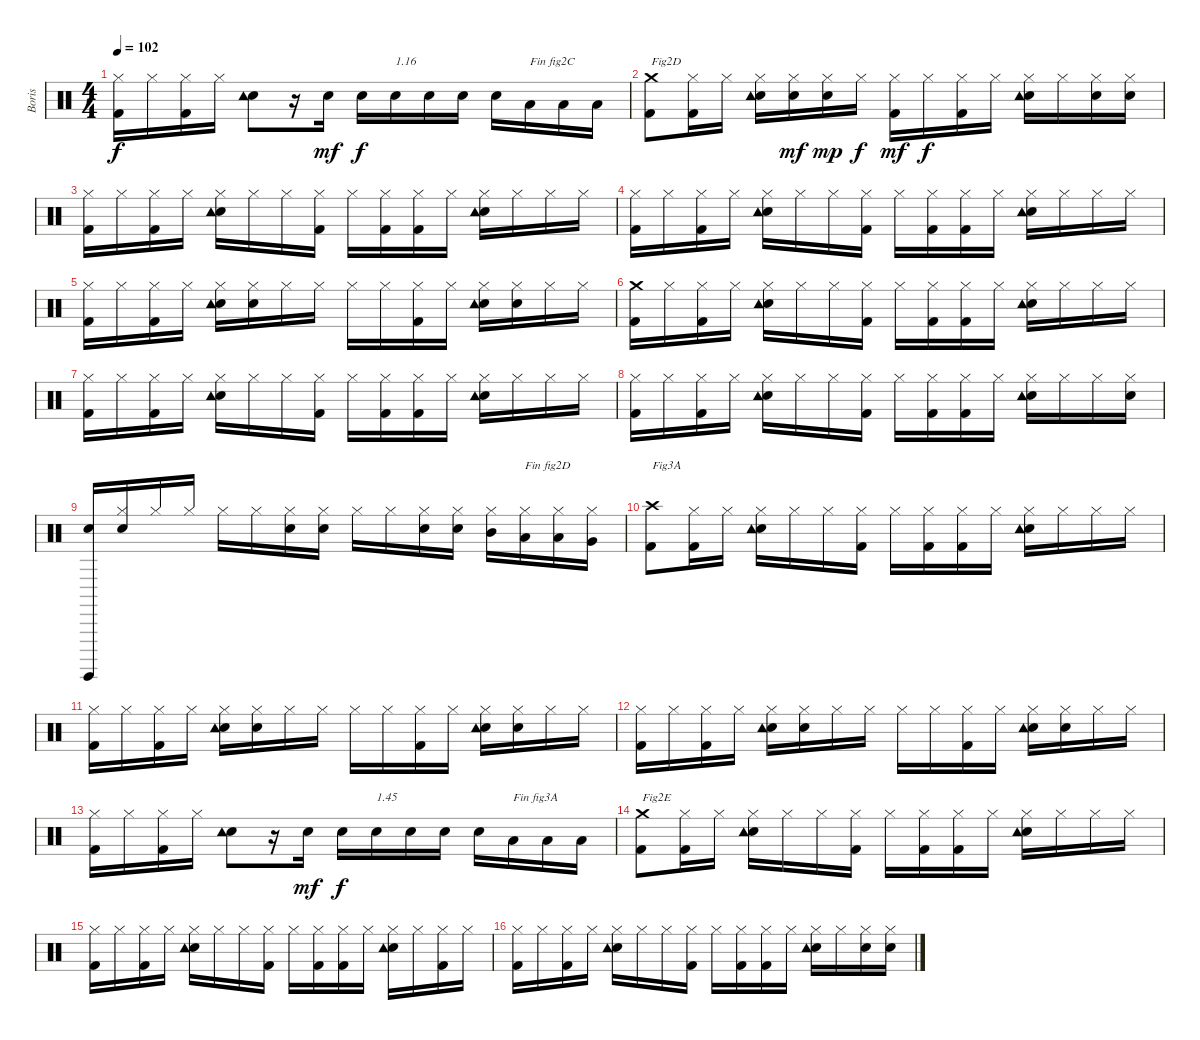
\track ("Boris" "Boris") {instrument percussion}
\staff {score}
\articulation defaults
\ts (4 4)
\tempo 102
\clef neutral
\ks c
("Kick (hit) 2" "Hi-Hat (closed)").16{dy f} "Hi-Hat (closed)".16 ("Kick (hit) 2" "Hi-Hat (closed)").16 "Hi-Hat (closed)".16 ("Electric Snare (hit)" "Tambourine (hit)").8 r.16 "Electric Snare (hit)".16{dy mf} "Electric Snare (hit)".16{dy f} "Electric Snare (hit)".16{txt "1.16"} "Electric Snare (hit)".16 "Electric Snare (hit)".16 "Electric Snare (hit)".16 "Low Tom (hit)".16{txt "Fin fig2C"} "Low Tom (hit)".16 "Low Tom (hit)".16 |
("Kick (hit) 2" "Crash medium (hit)").8{txt "Fig2D"} ("Kick (hit) 2" "Hi-Hat (closed)").16 "Hi-Hat (closed)".16 ("Electric Snare (hit)" "Tambourine (hit)" "Hi-Hat (closed)").16 ("Electric Snare (hit)" "Hi-Hat (closed)").16{dy mf} ("Electric Snare (hit)" "Hi-Hat (closed)").16{dy mp} "Hi-Hat (closed)".16{dy f} ("Kick (hit) 2" "Hi-Hat (closed)").16{dy mf} "Hi-Hat (closed)".16{dy f} ("Kick (hit) 2" "Hi-Hat (closed)").16 "Hi-Hat (closed)".16 ("Electric Snare (hit)" "Tambourine (hit)" "Hi-Hat (closed)").16 "Hi-Hat (closed)".16 ("Electric Snare (hit)" "Hi-Hat (closed)").16 ("Electric Snare (hit)" "Hi-Hat (closed)").16 |
("Kick (hit) 2" "Hi-Hat (closed)").16 "Hi-Hat (closed)".16 ("Kick (hit) 2" "Hi-Hat (closed)").16 "Hi-Hat (closed)".16 ("Electric Snare (hit)" "Tambourine (hit)" "Hi-Hat (closed)").16 "Hi-Hat (closed)".16 "Hi-Hat (closed)".16 ("Kick (hit) 2" "Hi-Hat (closed)").16 "Hi-Hat (closed)".16 ("Kick (hit) 2" "Hi-Hat (closed)").16 ("Kick (hit) 2" "Hi-Hat (closed)").16 "Hi-Hat (closed)".16 ("Electric Snare (hit)" "Tambourine (hit)" "Hi-Hat (closed)").16 "Hi-Hat (closed)".16 "Hi-Hat (closed)".16 "Hi-Hat (closed)".16 |
("Kick (hit) 2" "Hi-Hat (closed)").16 "Hi-Hat (closed)".16 ("Kick (hit) 2" "Hi-Hat (closed)").16 "Hi-Hat (closed)".16 ("Electric Snare (hit)" "Tambourine (hit)" "Hi-Hat (closed)").16 "Hi-Hat (closed)".16 "Hi-Hat (closed)".16 ("Kick (hit) 2" "Hi-Hat (closed)").16 "Hi-Hat (closed)".16 ("Kick (hit) 2" "Hi-Hat (closed)").16 ("Kick (hit) 2" "Hi-Hat (closed)").16 "Hi-Hat (closed)".16 ("Electric Snare (hit)" "Tambourine (hit)" "Hi-Hat (closed)").16 "Hi-Hat (closed)".16 "Hi-Hat (closed)".16 "Hi-Hat (closed)".16 |
("Kick (hit) 2" "Hi-Hat (closed)").16 "Hi-Hat (closed)".16 ("Kick (hit) 2" "Hi-Hat (closed)").16 "Hi-Hat (closed)".16 ("Electric Snare (hit)" "Tambourine (hit)" "Hi-Hat (closed)").16 ("Electric Snare (hit)" "Hi-Hat (closed)").16 "Hi-Hat (closed)".16 "Hi-Hat (closed)".16 "Hi-Hat (closed)".16 "Hi-Hat (closed)".16 ("Kick (hit) 2" "Hi-Hat (closed)").16 "Hi-Hat (closed)".16 ("Electric Snare (hit)" "Tambourine (hit)" "Hi-Hat (closed)").16 ("Electric Snare (hit)" "Hi-Hat (closed)").16 "Hi-Hat (closed)".16 "Hi-Hat (closed)".16 |
("Kick (hit) 2" "Crash medium (hit)").16 "Hi-Hat (closed)".16 ("Kick (hit) 2" "Hi-Hat (closed)").16 "Hi-Hat (closed)".16 ("Electric Snare (hit)" "Tambourine (hit)" "Hi-Hat (closed)").16 "Hi-Hat (closed)".16 "Hi-Hat (closed)".16 ("Kick (hit) 2" "Hi-Hat (closed)").16 "Hi-Hat (closed)".16 ("Kick (hit) 2" "Hi-Hat (closed)").16 ("Kick (hit) 2" "Hi-Hat (closed)").16 "Hi-Hat (closed)".16 ("Electric Snare (hit)" "Tambourine (hit)" "Hi-Hat (closed)").16 "Hi-Hat (closed)".16 "Hi-Hat (closed)".16 "Hi-Hat (closed)".16 |
("Kick (hit) 2" "Hi-Hat (closed)").16 "Hi-Hat (closed)".16 ("Kick (hit) 2" "Hi-Hat (closed)").16 "Hi-Hat (closed)".16 ("Electric Snare (hit)" "Tambourine (hit)" "Hi-Hat (closed)").16 "Hi-Hat (closed)".16 "Hi-Hat (closed)".16 ("Kick (hit) 2" "Hi-Hat (closed)").16 "Hi-Hat (closed)".16 ("Kick (hit) 2" "Hi-Hat (closed)").16 ("Kick (hit) 2" "Hi-Hat (closed)").16 "Hi-Hat (closed)".16 ("Electric Snare (hit)" "Tambourine (hit)" "Hi-Hat (closed)").16 "Hi-Hat (closed)".16 "Hi-Hat (closed)".16 "Hi-Hat (closed)".16 |
("Kick (hit) 2" "Hi-Hat (closed)").16 "Hi-Hat (closed)".16 ("Kick (hit) 2" "Hi-Hat (closed)").16 "Hi-Hat (closed)".16 ("Electric Snare (hit)" "Tambourine (hit)" "Hi-Hat (closed)").16 "Hi-Hat (closed)".16 "Hi-Hat (closed)".16 ("Kick (hit) 2" "Hi-Hat (closed)").16 "Hi-Hat (closed)".16 ("Kick (hit) 2" "Hi-Hat (closed)").16 ("Kick (hit) 2" "Hi-Hat (closed)").16 "Hi-Hat (closed)".16 ("Electric Snare (hit)" "Tambourine (hit)" "Hi-Hat (closed)").16 "Hi-Hat (closed)".16 "Hi-Hat (closed)".16 ("Electric Snare (hit)" "Hi-Hat (closed)").16 |
("Electric Snare (hit)" "Surdo (hit)").16 ("Electric Snare (hit)" "Hi-Hat (closed)").16 "Hi-Hat (closed)".16 "Hi-Hat (closed)".16 "Hi-Hat (closed)".16 "Hi-Hat (closed)".16 ("Electric Snare (hit)" "Hi-Hat (closed)").16 ("Electric Snare (hit)" "Hi-Hat (closed)").16 "Hi-Hat (closed)".16 "Hi-Hat (closed)".16 ("Electric Snare (hit)" "Hi-Hat (closed)").16 ("Electric Snare (hit)" "Hi-Hat (closed)").16 ("Mid Tom (hit)" "Hi-Hat (closed)").16 ("Low Tom (hit)" "Hi-Hat (closed)").16{txt "Fin fig2D"} ("Low Tom (hit)" "Hi-Hat (closed)").16 ("Very Low Tom (hit)" "Hi-Hat (closed)").16 |
("Kick (hit) 2" "Crash high (hit)").8{txt "Fig3A"} ("Kick (hit) 2" "Hi-Hat (closed)").16 "Hi-Hat (closed)".16 ("Electric Snare (hit)" "Tambourine (hit)" "Hi-Hat (closed)").16 "Hi-Hat (closed)".16 "Hi-Hat (closed)".16 ("Kick (hit) 2" "Hi-Hat (closed)").16 "Hi-Hat (closed)".16 ("Kick (hit) 2" "Hi-Hat (closed)").16 ("Kick (hit) 2" "Hi-Hat (closed)").16 "Hi-Hat (closed)".16 ("Electric Snare (hit)" "Tambourine (hit)" "Hi-Hat (closed)").16 "Hi-Hat (closed)".16 "Hi-Hat (closed)".16 "Hi-Hat (closed)".16 |
("Kick (hit) 2" "Hi-Hat (closed)").16 "Hi-Hat (closed)".16 ("Kick (hit) 2" "Hi-Hat (closed)").16 "Hi-Hat (closed)".16 ("Electric Snare (hit)" "Tambourine (hit)" "Hi-Hat (closed)").16 ("Electric Snare (hit)" "Hi-Hat (closed)").16 "Hi-Hat (closed)".16 "Hi-Hat (closed)".16 "Hi-Hat (closed)".16 "Hi-Hat (closed)".16 ("Kick (hit) 2" "Hi-Hat (closed)").16 "Hi-Hat (closed)".16 ("Electric Snare (hit)" "Tambourine (hit)" "Hi-Hat (closed)").16 ("Electric Snare (hit)" "Hi-Hat (closed)").16 "Hi-Hat (closed)".16 "Hi-Hat (closed)".16 |
("Kick (hit) 2" "Hi-Hat (closed)").16 "Hi-Hat (closed)".16 ("Kick (hit) 2" "Hi-Hat (closed)").16 "Hi-Hat (closed)".16 ("Electric Snare (hit)" "Tambourine (hit)" "Hi-Hat (closed)").16 ("Electric Snare (hit)" "Hi-Hat (closed)").16 "Hi-Hat (closed)".16 "Hi-Hat (closed)".16 "Hi-Hat (closed)".16 "Hi-Hat (closed)".16 ("Kick (hit) 2" "Hi-Hat (closed)").16 "Hi-Hat (closed)".16 ("Electric Snare (hit)" "Tambourine (hit)" "Hi-Hat (closed)").16 ("Electric Snare (hit)" "Hi-Hat (closed)").16 "Hi-Hat (closed)".16 "Hi-Hat (closed)".16 |
("Kick (hit) 2" "Hi-Hat (closed)").16 "Hi-Hat (closed)".16 ("Kick (hit) 2" "Hi-Hat (closed)").16 "Hi-Hat (closed)".16 ("Electric Snare (hit)" "Tambourine (hit)").8 r.16 "Electric Snare (hit)".16{dy mf} "Electric Snare (hit)".16{dy f} "Electric Snare (hit)".16{txt "1.45"} "Electric Snare (hit)".16 "Electric Snare (hit)".16 "Electric Snare (hit)".16 "Low Tom (hit)".16{txt "Fin fig3A"} "Low Tom (hit)".16 "Low Tom (hit)".16 |
("Kick (hit) 2" "Crash medium (hit)").8{txt "Fig2E"} ("Kick (hit) 2" "Hi-Hat (closed)").16 "Hi-Hat (closed)".16 ("Electric Snare (hit)" "Tambourine (hit)" "Hi-Hat (closed)").16 "Hi-Hat (closed)".16 "Hi-Hat (closed)".16 ("Kick (hit) 2" "Hi-Hat (closed)").16 "Hi-Hat (closed)".16 ("Kick (hit) 2" "Hi-Hat (closed)").16 ("Kick (hit) 2" "Hi-Hat (closed)").16 "Hi-Hat (closed)".16 ("Electric Snare (hit)" "Tambourine (hit)" "Hi-Hat (closed)").16 "Hi-Hat (closed)".16 "Hi-Hat (closed)".16 "Hi-Hat (closed)".16 |
("Kick (hit) 2" "Hi-Hat (closed)").16 "Hi-Hat (closed)".16 ("Kick (hit) 2" "Hi-Hat (closed)").16 "Hi-Hat (closed)".16 ("Electric Snare (hit)" "Tambourine (hit)" "Hi-Hat (closed)").16 "Hi-Hat (closed)".16 "Hi-Hat (closed)".16 ("Kick (hit) 2" "Hi-Hat (closed)").16 "Hi-Hat (closed)".16 ("Kick (hit) 2" "Hi-Hat (closed)").16 ("Kick (hit) 2" "Hi-Hat (closed)").16 "Hi-Hat (closed)".16 ("Electric Snare (hit)" "Tambourine (hit)" "Hi-Hat (closed)").16 "Hi-Hat (closed)".16 ("Kick (hit) 2" "Hi-Hat (closed)").16 "Hi-Hat (closed)".16 |
("Kick (hit) 2" "Hi-Hat (closed)").16 "Hi-Hat (closed)".16 ("Kick (hit) 2" "Hi-Hat (closed)").16 "Hi-Hat (closed)".16 ("Electric Snare (hit)" "Tambourine (hit)" "Hi-Hat (closed)").16 "Hi-Hat (closed)".16 "Hi-Hat (closed)".16 ("Kick (hit) 2" "Hi-Hat (closed)").16 "Hi-Hat (closed)".16 ("Kick (hit) 2" "Hi-Hat (closed)").16 ("Kick (hit) 2" "Hi-Hat (closed)").16 "Hi-Hat (closed)".16 ("Electric Snare (hit)" "Tambourine (hit)" "Hi-Hat (closed)").16 "Hi-Hat (closed)".16 ("Electric Snare (hit)" "Hi-Hat (closed)").16 ("Electric Snare (hit)" "Hi-Hat (closed)").16
